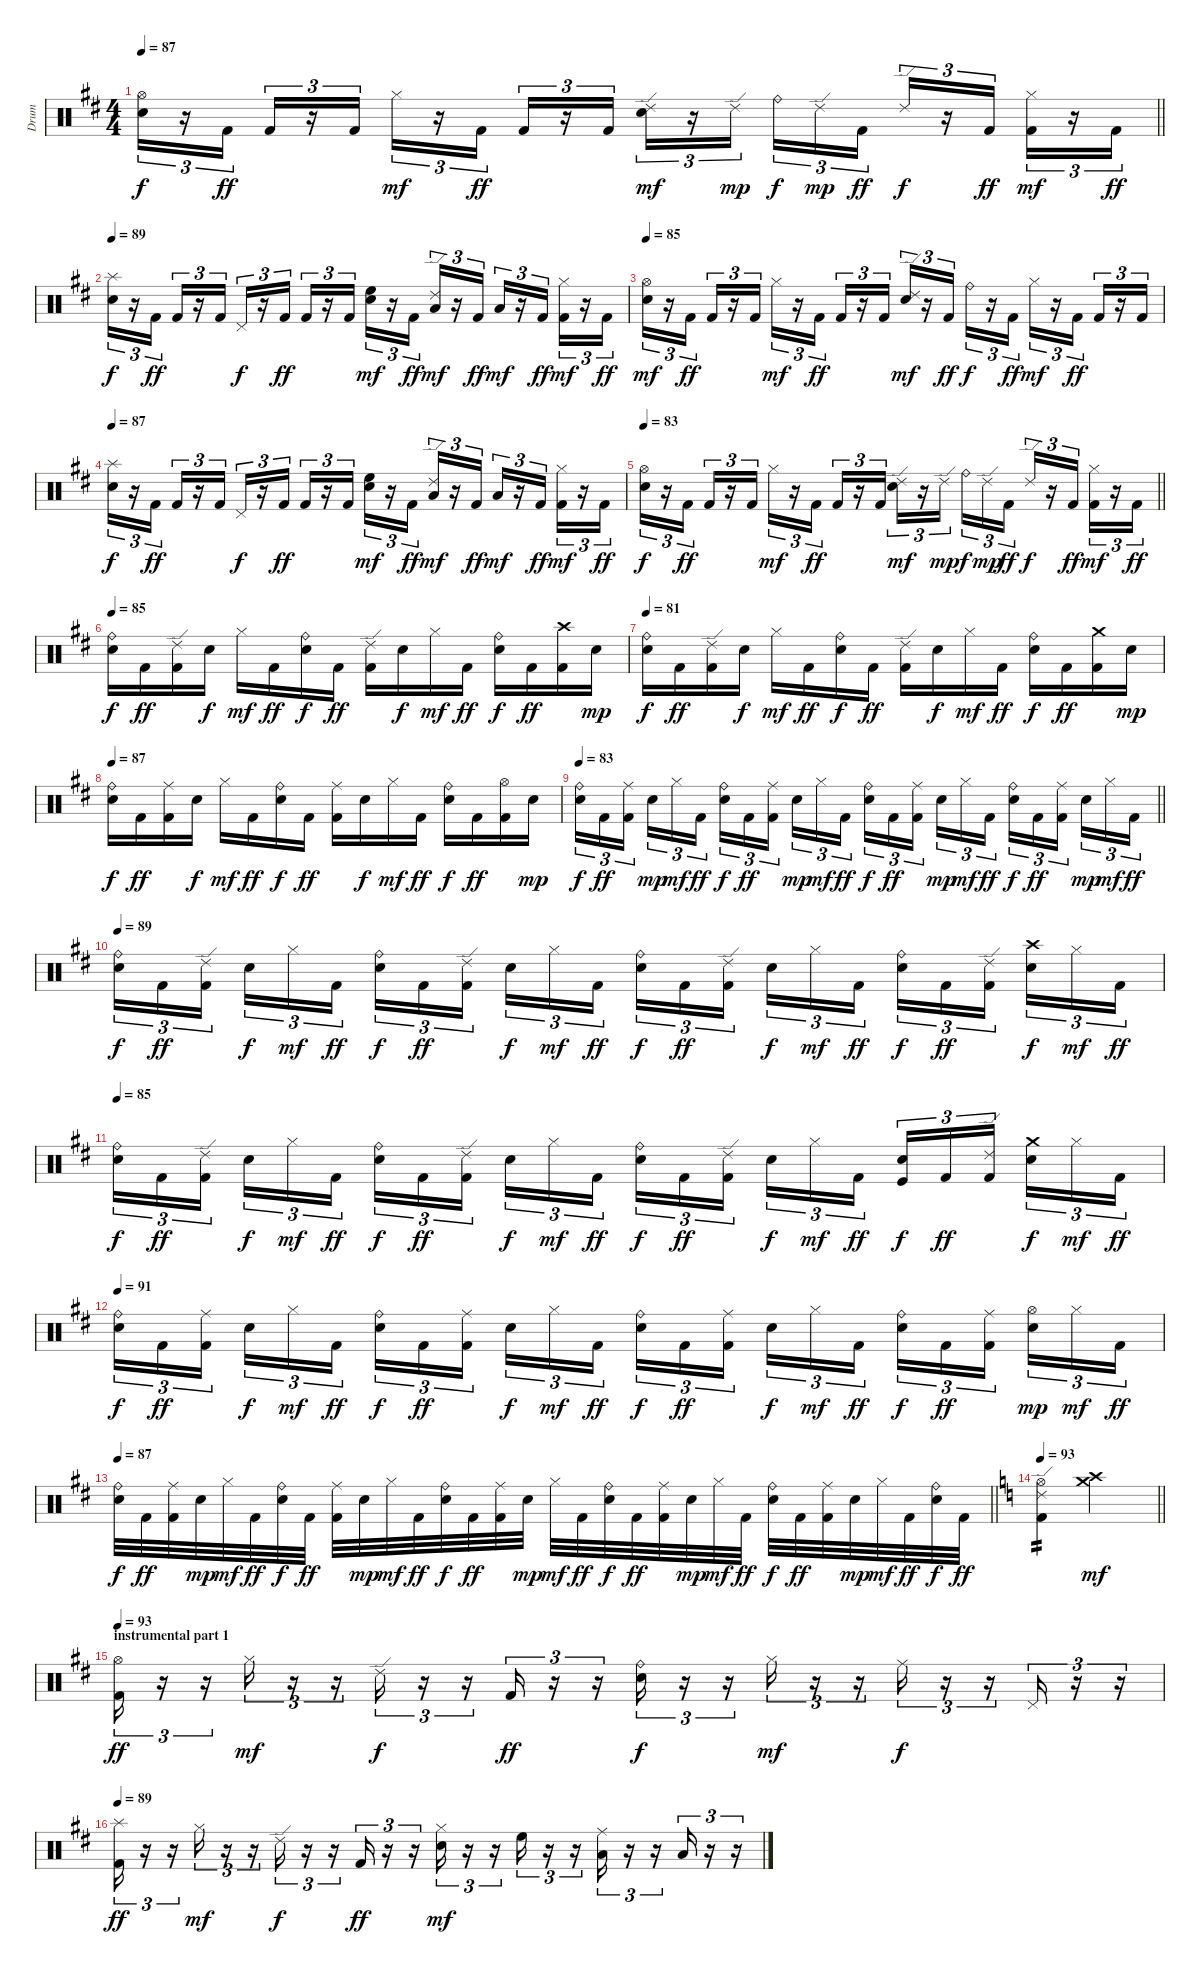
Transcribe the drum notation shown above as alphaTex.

\track ("Drum" "Drum") {instrument percussion}
\staff {score}
\articulation defaults
\ts (4 4)
\tempo 87
\clef neutral
\barLineRight lightlight
\ks d
("Electric Snare (hit)" "Hi-Hat (open)").16{tu (3 2) dy f} r.16{tu (3 2)} "Kick (hit) 2".16{tu (3 2) dy ff} "Kick (hit) 2".16{tu (3 2)} r.16{tu (3 2)} "Kick (hit) 2".16{tu (3 2)} "Hi-Hat (closed)".16{tu (3 2) dy mf} r.16{tu (3 2)} "Kick (hit) 2".16{tu (3 2) dy ff} "Kick (hit) 2".16{tu (3 2)} r.16{tu (3 2)} "Kick (hit) 2".16{tu (3 2)} ("Electric Snare (hit)" "Ride (edge) 2").16{tu (3 2) dy mf} r.16{tu (3 2)} "Ride (edge) 2".16{tu (3 2) dy mp beam splitsecondary} "Ride (bell)".16{tu (3 2) dy f} "Ride (edge) 2".16{tu (3 2) dy mp} "Kick (hit) 2".16{tu (3 2) dy ff} "Ride (edge) 2".16{tu (3 2) dy f} r.16{tu (3 2)} "Kick (hit) 2".16{tu (3 2) dy ff} ("Kick (hit) 2" "Hi-Hat (closed)").16{tu (3 2) dy mf} r.16{tu (3 2)} "Kick (hit) 2".16{tu (3 2) dy ff} |
\tempo 89
("Electric Snare (hit)" "Splash (hit)").16{tu (3 2) dy f} r.16{tu (3 2)} "Kick (hit) 2".16{tu (3 2) dy ff} "Kick (hit) 2".16{tu (3 2)} r.16{tu (3 2)} "Kick (hit) 2".16{tu (3 2)} "Pedal Hi-Hat (hit)".16{tu (3 2) dy f} r.16{tu (3 2)} "Kick (hit) 2".16{tu (3 2) dy ff} "Kick (hit) 2".16{tu (3 2)} r.16{tu (3 2)} "Kick (hit) 2".16{tu (3 2)} ("Electric Snare (hit)" "High Floor Tom (hit)").16{tu (3 2) dy mf} r.16{tu (3 2)} "Kick (hit) 2".16{tu (3 2) dy ff} ("Low Tom (hit)" "Ride (edge) 2").16{tu (3 2) dy mf} r.16{tu (3 2)} "Kick (hit) 2".16{tu (3 2) dy ff} "Low Floor Tom (hit)".16{tu (3 2) dy mf} r.16{tu (3 2)} "Kick (hit) 2".16{tu (3 2) dy ff} ("Kick (hit) 2" "Hi-Hat (closed)").16{tu (3 2) dy mf} r.16{tu (3 2)} "Kick (hit) 2".16{tu (3 2) dy ff} |
\tempo 85
("Electric Snare (hit)" "Hi-Hat (open)").16{tu (3 2) dy mf} r.16{tu (3 2)} "Kick (hit) 2".16{tu (3 2) dy ff} "Kick (hit) 2".16{tu (3 2)} r.16{tu (3 2)} "Kick (hit) 2".16{tu (3 2)} "Hi-Hat (closed)".16{tu (3 2) dy mf} r.16{tu (3 2)} "Kick (hit) 2".16{tu (3 2) dy ff} "Kick (hit) 2".16{tu (3 2)} r.16{tu (3 2)} "Kick (hit) 2".16{tu (3 2)} ("Electric Snare (hit)" "Ride (edge) 2").16{tu (3 2) dy mf} r.16{tu (3 2)} "Kick (hit) 2".16{tu (3 2) dy ff} "Ride (bell)".16{tu (3 2) dy f} r.16{tu (3 2)} "Kick (hit) 2".16{tu (3 2) dy ff} "Hi-Hat (closed)".16{tu (3 2) dy mf} r.16{tu (3 2)} "Kick (hit) 2".16{tu (3 2) dy ff} "Kick (hit) 2".16{tu (3 2)} r.16{tu (3 2)} "Kick (hit) 2".16{tu (3 2)} |
\tempo 87
("Electric Snare (hit)" "Splash (hit)").16{tu (3 2) dy f} r.16{tu (3 2)} "Kick (hit) 2".16{tu (3 2) dy ff} "Kick (hit) 2".16{tu (3 2)} r.16{tu (3 2)} "Kick (hit) 2".16{tu (3 2)} "Pedal Hi-Hat (hit)".16{tu (3 2) dy f} r.16{tu (3 2)} "Kick (hit) 2".16{tu (3 2) dy ff} "Kick (hit) 2".16{tu (3 2)} r.16{tu (3 2)} "Kick (hit) 2".16{tu (3 2)} ("Electric Snare (hit)" "High Floor Tom (hit)").16{tu (3 2) dy mf} r.16{tu (3 2)} "Kick (hit) 2".16{tu (3 2) dy ff} ("Low Tom (hit)" "Ride (edge) 2").16{tu (3 2) dy mf} r.16{tu (3 2)} "Kick (hit) 2".16{tu (3 2) dy ff} "Low Floor Tom (hit)".16{tu (3 2) dy mf} r.16{tu (3 2)} "Kick (hit) 2".16{tu (3 2) dy ff} ("Kick (hit) 2" "Hi-Hat (closed)").16{tu (3 2) dy mf} r.16{tu (3 2)} "Kick (hit) 2".16{tu (3 2) dy ff} |
\tempo 83
\barLineRight lightlight
("Electric Snare (hit)" "Hi-Hat (open)").16{tu (3 2) dy f} r.16{tu (3 2)} "Kick (hit) 2".16{tu (3 2) dy ff} "Kick (hit) 2".16{tu (3 2)} r.16{tu (3 2)} "Kick (hit) 2".16{tu (3 2)} "Hi-Hat (closed)".16{tu (3 2) dy mf} r.16{tu (3 2)} "Kick (hit) 2".16{tu (3 2) dy ff} "Kick (hit) 2".16{tu (3 2)} r.16{tu (3 2)} "Kick (hit) 2".16{tu (3 2)} ("Electric Snare (hit)" "Ride (edge) 2").16{tu (3 2) dy mf} r.16{tu (3 2)} "Ride (edge) 2".16{tu (3 2) dy mp beam splitsecondary} "Ride (bell)".16{tu (3 2) dy f} "Ride (edge) 2".16{tu (3 2) dy mp} "Kick (hit) 2".16{tu (3 2) dy ff} "Ride (edge) 2".16{tu (3 2) dy f} r.16{tu (3 2)} "Kick (hit) 2".16{tu (3 2) dy ff} ("Kick (hit) 2" "Hi-Hat (closed)").16{tu (3 2) dy mf} r.16{tu (3 2)} "Kick (hit) 2".16{tu (3 2) dy ff} |
\tempo 85
("Electric Snare (hit)" "Ride (bell)").16{dy f} "Kick (hit) 2".16{dy ff} ("Kick (hit) 2" "Ride (edge) 2").16 "Electric Snare (hit)".16{dy f} "Hi-Hat (closed)".16{dy mf} "Kick (hit) 2".16{dy ff} ("Electric Snare (hit)" "Ride (bell)").16{dy f} "Kick (hit) 2".16{dy ff} ("Kick (hit) 2" "Ride (edge) 2").16 "Electric Snare (hit)".16{dy f} "Hi-Hat (closed)".16{dy mf} "Kick (hit) 2".16{dy ff} ("Electric Snare (hit)" "Ride (bell)").16{dy f} "Kick (hit) 2".16{dy ff} ("Kick (hit) 2" "Crash high (hit)").16 "Electric Snare (hit)".16{dy mp} |
\tempo 81
("Electric Snare (hit)" "Ride (bell)").16{dy f} "Kick (hit) 2".16{dy ff} ("Kick (hit) 2" "Ride (edge) 2").16 "Electric Snare (hit)".16{dy f} "Hi-Hat (closed)".16{dy mf} "Kick (hit) 2".16{dy ff} ("Electric Snare (hit)" "Ride (bell)").16{dy f} "Kick (hit) 2".16{dy ff} ("Kick (hit) 2" "Ride (edge) 2").16 "Electric Snare (hit)".16{dy f} "Hi-Hat (closed)".16{dy mf} "Kick (hit) 2".16{dy ff} ("Electric Snare (hit)" "Ride (bell)").16{dy f} "Kick (hit) 2".16{dy ff} ("Kick (hit) 2" "Crash medium (hit)").16 "Electric Snare (hit)".16{dy mp} |
\tempo 87
("Electric Snare (hit)" "Ride (bell)").16{dy f} "Kick (hit) 2".16{dy ff} ("Kick (hit) 2" "Ride (middle)").16 "Electric Snare (hit)".16{dy f} "Hi-Hat (closed)".16{dy mf} "Kick (hit) 2".16{dy ff} ("Electric Snare (hit)" "Ride (bell)").16{dy f} "Kick (hit) 2".16{dy ff} ("Kick (hit) 2" "Ride (middle)").16 "Electric Snare (hit)".16{dy f} "Hi-Hat (closed)".16{dy mf} "Kick (hit) 2".16{dy ff} ("Electric Snare (hit)" "Ride (bell)").16{dy f} "Kick (hit) 2".16{dy ff} ("Kick (hit) 2" "Hi-Hat (open)").16 "Electric Snare (hit)".16{dy mp} |
\tempo 83
\barLineRight lightlight
("Electric Snare (hit)" "Ride (bell)").16{tu (3 2) dy f} "Kick (hit) 2".16{tu (3 2) dy ff} ("Kick (hit) 2" "Ride (middle)").16{tu (3 2) beam splitsecondary} "Electric Snare (hit)".16{tu (3 2) dy mp} "Hi-Hat (closed)".16{tu (3 2) dy mf} "Kick (hit) 2".16{tu (3 2) dy ff} ("Electric Snare (hit)" "Ride (bell)").16{tu (3 2) dy f} "Kick (hit) 2".16{tu (3 2) dy ff} ("Kick (hit) 2" "Ride (middle)").16{tu (3 2) beam splitsecondary} "Electric Snare (hit)".16{tu (3 2) dy mp} "Hi-Hat (closed)".16{tu (3 2) dy mf} "Kick (hit) 2".16{tu (3 2) dy ff} ("Electric Snare (hit)" "Ride (bell)").16{tu (3 2) dy f} "Kick (hit) 2".16{tu (3 2) dy ff} ("Kick (hit) 2" "Ride (middle)").16{tu (3 2) beam splitsecondary} "Electric Snare (hit)".16{tu (3 2) dy mp} "Hi-Hat (closed)".16{tu (3 2) dy mf} "Kick (hit) 2".16{tu (3 2) dy ff} ("Electric Snare (hit)" "Ride (bell)").16{tu (3 2) dy f} "Kick (hit) 2".16{tu (3 2) dy ff} ("Kick (hit) 2" "Ride (middle)").16{tu (3 2) beam splitsecondary} "Electric Snare (hit)".16{tu (3 2) dy mp} "Hi-Hat (closed)".16{tu (3 2) dy mf} "Kick (hit) 2".16{tu (3 2) dy ff} |
\tempo 89
("Electric Snare (hit)" "Ride (bell)").16{tu (3 2) dy f} "Kick (hit) 2".16{tu (3 2) dy ff} ("Kick (hit) 2" "Ride (edge) 2").16{tu (3 2) beam splitsecondary} "Electric Snare (hit)".16{tu (3 2) dy f} "Hi-Hat (closed)".16{tu (3 2) dy mf} "Kick (hit) 2".16{tu (3 2) dy ff} ("Electric Snare (hit)" "Ride (bell)").16{tu (3 2) dy f} "Kick (hit) 2".16{tu (3 2) dy ff} ("Kick (hit) 2" "Ride (edge) 2").16{tu (3 2) beam splitsecondary} "Electric Snare (hit)".16{tu (3 2) dy f} "Hi-Hat (closed)".16{tu (3 2) dy mf} "Kick (hit) 2".16{tu (3 2) dy ff} ("Electric Snare (hit)" "Ride (bell)").16{tu (3 2) dy f} "Kick (hit) 2".16{tu (3 2) dy ff} ("Kick (hit) 2" "Ride (edge) 2").16{tu (3 2) beam splitsecondary} "Electric Snare (hit)".16{tu (3 2) dy f} "Hi-Hat (closed)".16{tu (3 2) dy mf} "Kick (hit) 2".16{tu (3 2) dy ff} ("Electric Snare (hit)" "Ride (bell)").16{tu (3 2) dy f} "Kick (hit) 2".16{tu (3 2) dy ff} ("Kick (hit) 2" "Ride (edge) 2").16{tu (3 2) beam splitsecondary} ("Electric Snare (hit)" "Crash high (hit)").16{tu (3 2) dy f} "Hi-Hat (closed)".16{tu (3 2) dy mf} "Kick (hit) 2".16{tu (3 2) dy ff} |
\tempo 85
("Electric Snare (hit)" "Ride (bell)").16{tu (3 2) dy f} "Kick (hit) 2".16{tu (3 2) dy ff} ("Kick (hit) 2" "Ride (edge) 2").16{tu (3 2) beam splitsecondary} "Electric Snare (hit)".16{tu (3 2) dy f} "Hi-Hat (closed)".16{tu (3 2) dy mf} "Kick (hit) 2".16{tu (3 2) dy ff} ("Electric Snare (hit)" "Ride (bell)").16{tu (3 2) dy f} "Kick (hit) 2".16{tu (3 2) dy ff} ("Kick (hit) 2" "Ride (edge) 2").16{tu (3 2) beam splitsecondary} "Electric Snare (hit)".16{tu (3 2) dy f} "Hi-Hat (closed)".16{tu (3 2) dy mf} "Kick (hit) 2".16{tu (3 2) dy ff} ("Electric Snare (hit)" "Ride (bell)").16{tu (3 2) dy f} "Kick (hit) 2".16{tu (3 2) dy ff} ("Kick (hit) 2" "Ride (edge) 2").16{tu (3 2) beam splitsecondary} "Electric Snare (hit)".16{tu (3 2) dy f} "Hi-Hat (closed)".16{tu (3 2) dy mf} "Kick (hit) 2".16{tu (3 2) dy ff} ("Electric Snare (hit)" "Kick (hit)").16{tu (3 2) dy f} "Kick (hit) 2".16{tu (3 2) dy ff} ("Kick (hit) 2" "Ride (edge) 2").16{tu (3 2) beam splitsecondary} ("Electric Snare (hit)" "Crash medium (hit)").16{tu (3 2) dy f} "Hi-Hat (closed)".16{tu (3 2) dy mf} "Kick (hit) 2".16{tu (3 2) dy ff} |
\tempo 91
("Electric Snare (hit)" "Ride (bell)").16{tu (3 2) dy f} "Kick (hit) 2".16{tu (3 2) dy ff} ("Kick (hit) 2" "Ride (middle)").16{tu (3 2) beam splitsecondary} "Electric Snare (hit)".16{tu (3 2) dy f} "Hi-Hat (closed)".16{tu (3 2) dy mf} "Kick (hit) 2".16{tu (3 2) dy ff} ("Electric Snare (hit)" "Ride (bell)").16{tu (3 2) dy f} "Kick (hit) 2".16{tu (3 2) dy ff} ("Kick (hit) 2" "Ride (middle)").16{tu (3 2) beam splitsecondary} "Electric Snare (hit)".16{tu (3 2) dy f} "Hi-Hat (closed)".16{tu (3 2) dy mf} "Kick (hit) 2".16{tu (3 2) dy ff} ("Electric Snare (hit)" "Ride (bell)").16{tu (3 2) dy f} "Kick (hit) 2".16{tu (3 2) dy ff} ("Kick (hit) 2" "Ride (middle)").16{tu (3 2) beam splitsecondary} "Electric Snare (hit)".16{tu (3 2) dy f} "Hi-Hat (closed)".16{tu (3 2) dy mf} "Kick (hit) 2".16{tu (3 2) dy ff} ("Electric Snare (hit)" "Ride (bell)").16{tu (3 2) dy f} "Kick (hit) 2".16{tu (3 2) dy ff} ("Kick (hit) 2" "Ride (middle)").16{tu (3 2) beam splitsecondary} ("Electric Snare (hit)" "Hi-Hat (open)").16{tu (3 2) dy mp} "Hi-Hat (closed)".16{tu (3 2) dy mf} "Kick (hit) 2".16{tu (3 2) dy ff} |
\tempo 87
\barLineRight lightlight
("Electric Snare (hit)" "Ride (bell)").32{dy f} "Kick (hit) 2".32{dy ff} ("Kick (hit) 2" "Ride (middle)").32 "Electric Snare (hit)".32{dy mp} "Hi-Hat (closed)".32{dy mf} "Kick (hit) 2".32{dy ff} ("Electric Snare (hit)" "Ride (bell)").32{dy f} "Kick (hit) 2".32{dy ff} ("Kick (hit) 2" "Ride (middle)").32 "Electric Snare (hit)".32{dy mp} "Hi-Hat (closed)".32{dy mf} "Kick (hit) 2".32{dy ff} ("Electric Snare (hit)" "Ride (bell)").32{dy f} "Kick (hit) 2".32{dy ff} ("Kick (hit) 2" "Ride (middle)").32 "Electric Snare (hit)".32{dy mp} "Hi-Hat (closed)".32{dy mf} "Kick (hit) 2".32{dy ff} ("Electric Snare (hit)" "Ride (bell)").32{dy f} "Kick (hit) 2".32{dy ff} ("Kick (hit) 2" "Ride (middle)").32 "Electric Snare (hit)".32{dy mp} "Hi-Hat (closed)".32{dy mf} "Kick (hit) 2".32{dy ff} ("Electric Snare (hit)" "Ride (bell)").32{dy f} "Kick (hit) 2".32{dy ff} ("Kick (hit) 2" "Ride (middle)").32 "Electric Snare (hit)".32{dy mp} "Hi-Hat (closed)".32{dy mf} "Kick (hit) 2".32{dy ff} ("Electric Snare (hit)" "Ride (bell)").32{dy f} "Kick (hit) 2".32{dy ff} |
\tempo 93
\barLineRight lightlight
\ks c
("Kick (hit) 2" "Hi-Hat (open)" "Ride (edge) 2").4{tp 2} ("Crash high (hit)" "Crash medium (hit)").2{dy mf} |
\section ("" "instrumental part 1")
\tempo 93
\ks d
("Kick (hit) 2" "Hi-Hat (open)").16{tu (3 2) dy ff} r.16{tu (3 2)} r.16{tu (3 2)} "Hi-Hat (closed)".16{tu (3 2) dy mf} r.16{tu (3 2)} r.16{tu (3 2)} "Ride (edge) 2".16{tu (3 2) dy f} r.16{tu (3 2)} r.16{tu (3 2)} "Kick (hit) 2".16{tu (3 2) dy ff} r.16{tu (3 2)} r.16{tu (3 2)} ("Electric Snare (hit)" "Ride (bell)").16{tu (3 2) dy f} r.16{tu (3 2)} r.16{tu (3 2)} "Hi-Hat (closed)".16{tu (3 2) dy mf} r.16{tu (3 2)} r.16{tu (3 2)} "Ride (middle)".16{tu (3 2) dy f} r.16{tu (3 2)} r.16{tu (3 2)} "Pedal Hi-Hat (hit)".16{tu (3 2)} r.16{tu (3 2)} r.16{tu (3 2)} |
\tempo 89
("Kick (hit) 2" "Splash (hit)").16{tu (3 2) dy ff} r.16{tu (3 2)} r.16{tu (3 2)} "Hi-Hat (closed)".16{tu (3 2) dy mf} r.16{tu (3 2)} r.16{tu (3 2)} "Ride (edge) 2".16{tu (3 2) dy f} r.16{tu (3 2)} r.16{tu (3 2)} "Kick (hit) 2".16{tu (3 2) dy ff} r.16{tu (3 2)} r.16{tu (3 2)} ("Electric Snare (hit)" "Hi-Hat (closed)").16{tu (3 2) dy mf} r.16{tu (3 2)} r.16{tu (3 2)} "High Floor Tom (hit)".16{tu (3 2)} r.16{tu (3 2)} r.16{tu (3 2)} ("Low Tom (hit)" "Ride (middle)").16{tu (3 2)} r.16{tu (3 2)} r.16{tu (3 2)} "Low Floor Tom (hit)".16{tu (3 2)} r.16{tu (3 2)} r.16{tu (3 2)}
